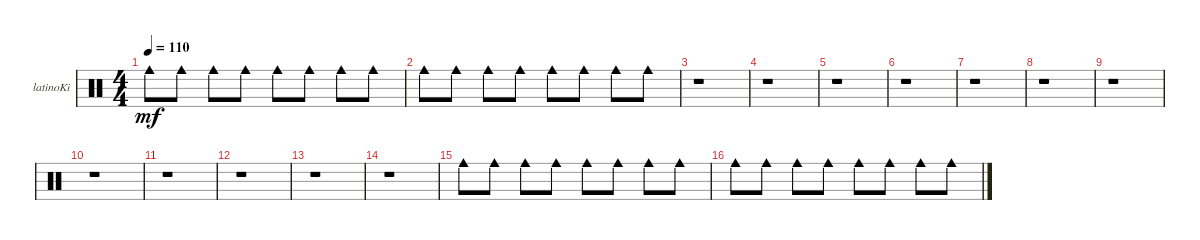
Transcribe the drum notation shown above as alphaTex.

\defaultSystemsLayout 4
\bracketExtendMode groupsimilarinstruments
\firstSystemTrackNameOrientation horizontal
\otherSystemsTrackNameOrientation horizontal
\track ("Tambourine" "latinoKi") {instrument percussion}
\staff {score}
\articulation defaults
\ts (4 4)
\tempo 110
\clef neutral
\ks c "Cowbell medium (hit)".8{dy mf} "Cowbell medium (hit)".8 "Cowbell medium (hit)".8 "Cowbell medium (hit)".8 "Cowbell medium (hit)".8 "Cowbell medium (hit)".8 "Cowbell medium (hit)".8 "Cowbell medium (hit)".8
|
"Cowbell medium (hit)".8 "Cowbell medium (hit)".8 "Cowbell medium (hit)".8 "Cowbell medium (hit)".8 "Cowbell medium (hit)".8 "Cowbell medium (hit)".8 "Cowbell medium (hit)".8 "Cowbell medium (hit)".8 |
r.1 |
r.1 |
r.1 |
r.1 |
r.1 |
r.1 |
r.1 |
r.1 |
r.1 |
r.1 |
r.1 |
r.1 |
"Cowbell medium (hit)".8 "Cowbell medium (hit)".8 "Cowbell medium (hit)".8 "Cowbell medium (hit)".8 "Cowbell medium (hit)".8 "Cowbell medium (hit)".8 "Cowbell medium (hit)".8 "Cowbell medium (hit)".8 |
"Cowbell medium (hit)".8 "Cowbell medium (hit)".8 "Cowbell medium (hit)".8 "Cowbell medium (hit)".8 "Cowbell medium (hit)".8 "Cowbell medium (hit)".8 "Cowbell medium (hit)".8 "Cowbell medium (hit)".8
